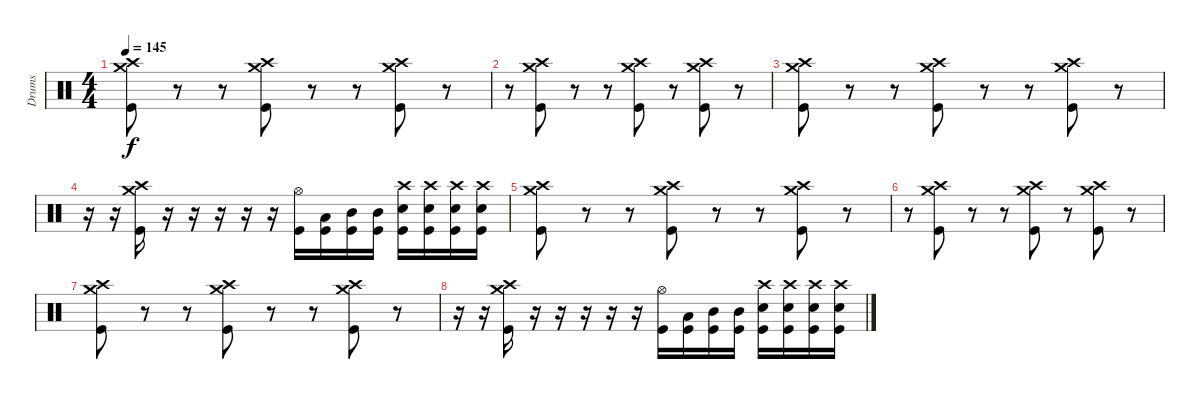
\track ("Drums" "Drums") {instrument percussion}
\staff {score}
\articulation defaults
\ts (4 4)
\tempo 145
\clef neutral
\ks c
("Crash high (hit)" "Crash medium (hit)" "Kick (hit)").8{dy f} r.8 r.8 ("Crash high (hit)" "Crash medium (hit)" "Kick (hit)").8 r.8 r.8 ("Crash high (hit)" "Crash medium (hit)" "Kick (hit)").8 r.8 |
r.8 ("Crash high (hit)" "Crash medium (hit)" "Kick (hit)").8 r.8 r.8 ("Crash high (hit)" "Crash medium (hit)" "Kick (hit)").8 r.8 ("Crash high (hit)" "Crash medium (hit)" "Kick (hit)").8 r.8 |
("Crash high (hit)" "Crash medium (hit)" "Kick (hit)").8 r.8 r.8 ("Crash high (hit)" "Crash medium (hit)" "Kick (hit)").8 r.8 r.8 ("Crash high (hit)" "Crash medium (hit)" "Kick (hit)").8 r.8 |
r.16 r.16 ("Crash high (hit)" "Crash medium (hit)" "Kick (hit)").16 r.16 r.16 r.16 r.16 r.16 ("Hi-Hat (open)" "Kick (hit)").16 ("Low Tom (hit)" "Kick (hit)").16 ("Mid Tom (hit)" "Kick (hit)").16 ("Mid Tom (hit)" "Kick (hit)").16 ("Crash high (hit)" "Snare (hit) 2" "Kick (hit)").16 ("Crash high (hit)" "Snare (hit) 2" "Kick (hit)").16 ("Crash high (hit)" "Snare (hit) 2" "Kick (hit)").16 ("Crash high (hit)" "Snare (hit) 2" "Kick (hit)").16 |
("Crash high (hit)" "Crash medium (hit)" "Kick (hit)").8 r.8 r.8 ("Crash high (hit)" "Crash medium (hit)" "Kick (hit)").8 r.8 r.8 ("Crash high (hit)" "Crash medium (hit)" "Kick (hit)").8 r.8 |
r.8 ("Crash high (hit)" "Crash medium (hit)" "Kick (hit)").8 r.8 r.8 ("Crash high (hit)" "Crash medium (hit)" "Kick (hit)").8 r.8 ("Crash high (hit)" "Crash medium (hit)" "Kick (hit)").8 r.8 |
("Crash high (hit)" "Crash medium (hit)" "Kick (hit)").8 r.8 r.8 ("Crash high (hit)" "Crash medium (hit)" "Kick (hit)").8 r.8 r.8 ("Crash high (hit)" "Crash medium (hit)" "Kick (hit)").8 r.8 |
r.16 r.16 ("Crash high (hit)" "Crash medium (hit)" "Kick (hit)").16 r.16 r.16 r.16 r.16 r.16 ("Hi-Hat (open)" "Kick (hit)").16 ("Low Tom (hit)" "Kick (hit)").16 ("Mid Tom (hit)" "Kick (hit)").16 ("Mid Tom (hit)" "Kick (hit)").16 ("Crash high (hit)" "Snare (hit) 2" "Kick (hit)").16 ("Crash high (hit)" "Snare (hit) 2" "Kick (hit)").16 ("Crash high (hit)" "Snare (hit) 2" "Kick (hit)").16 ("Crash high (hit)" "Snare (hit) 2" "Kick (hit)").16
